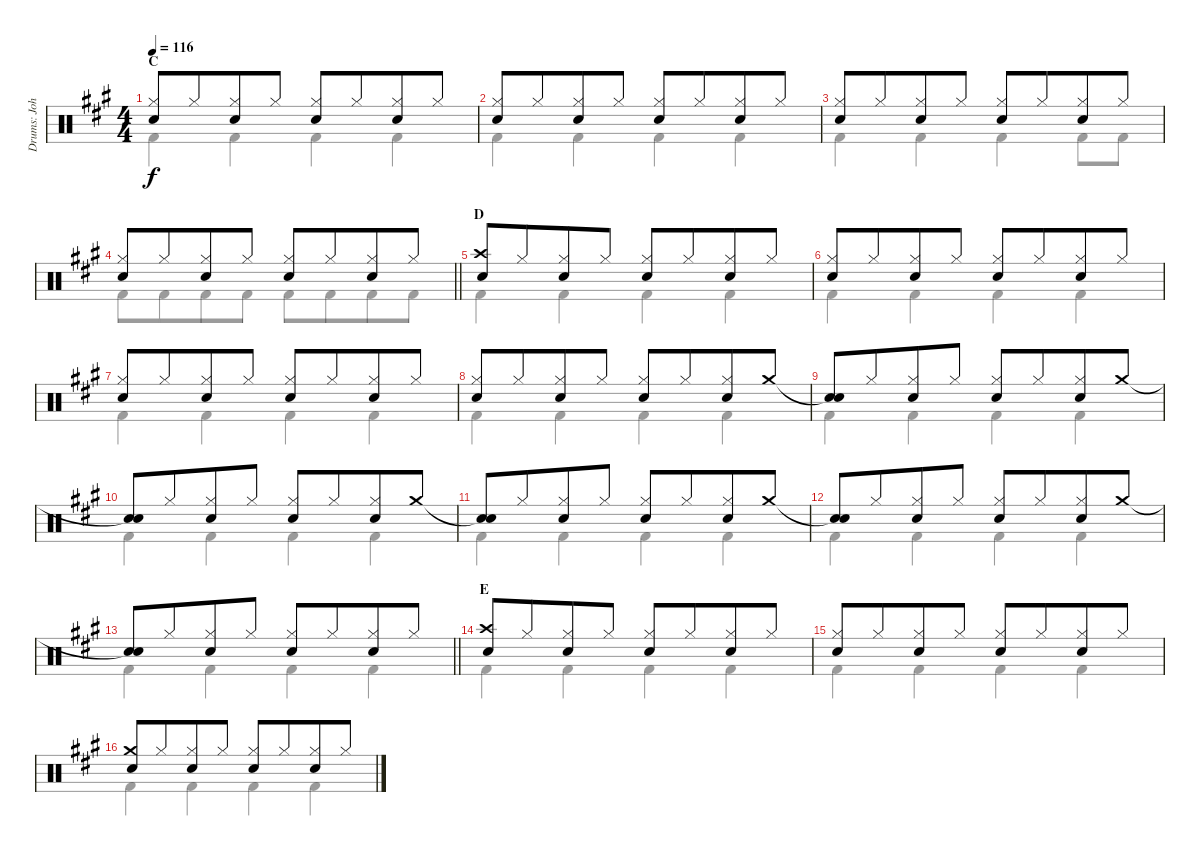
\track ("Drums: John" "Drums: Joh") {instrument percussion}
\staff {score}
\articulation defaults
\voice
\ts (4 4)
\section ("" "C")
\tempo 116
\clef neutral
\ks a
("Hi-Hat (closed)" "Electric Snare (hit)").8{dy f} "Hi-Hat (closed)".8{beam merge} ("Hi-Hat (closed)" "Electric Snare (hit)").8 "Hi-Hat (closed)".8 ("Hi-Hat (closed)" "Electric Snare (hit)").8 "Hi-Hat (closed)".8{beam merge} ("Hi-Hat (closed)" "Electric Snare (hit)").8 "Hi-Hat (closed)".8 |
("Hi-Hat (closed)" "Electric Snare (hit)").8 "Hi-Hat (closed)".8{beam merge} ("Hi-Hat (closed)" "Electric Snare (hit)").8 "Hi-Hat (closed)".8 ("Hi-Hat (closed)" "Electric Snare (hit)").8 "Hi-Hat (closed)".8{beam merge} ("Hi-Hat (closed)" "Electric Snare (hit)").8 "Hi-Hat (closed)".8 |
("Hi-Hat (closed)" "Electric Snare (hit)").8 "Hi-Hat (closed)".8{beam merge} ("Hi-Hat (closed)" "Electric Snare (hit)").8 "Hi-Hat (closed)".8 ("Hi-Hat (closed)" "Electric Snare (hit)").8 "Hi-Hat (closed)".8{beam merge} ("Hi-Hat (closed)" "Electric Snare (hit)").8 "Hi-Hat (closed)".8 |
\barLineRight lightlight
("Hi-Hat (closed)" "Electric Snare (hit)").8 "Hi-Hat (closed)".8{beam merge} ("Hi-Hat (closed)" "Electric Snare (hit)").8 "Hi-Hat (closed)".8 ("Hi-Hat (closed)" "Electric Snare (hit)").8 "Hi-Hat (closed)".8{beam merge} ("Hi-Hat (closed)" "Electric Snare (hit)").8 "Hi-Hat (closed)".8 |
\section ("" "D")
("Crash high (hit)" "Electric Snare (hit)").8 "Hi-Hat (closed)".8{beam merge} ("Hi-Hat (closed)" "Electric Snare (hit)").8 "Hi-Hat (closed)".8 ("Hi-Hat (closed)" "Electric Snare (hit)").8 "Hi-Hat (closed)".8{beam merge} ("Hi-Hat (closed)" "Electric Snare (hit)").8 "Hi-Hat (closed)".8 |
("Hi-Hat (closed)" "Electric Snare (hit)").8 "Hi-Hat (closed)".8{beam merge} ("Hi-Hat (closed)" "Electric Snare (hit)").8 "Hi-Hat (closed)".8 ("Hi-Hat (closed)" "Electric Snare (hit)").8 "Hi-Hat (closed)".8{beam merge} ("Hi-Hat (closed)" "Electric Snare (hit)").8 "Hi-Hat (closed)".8 |
("Hi-Hat (closed)" "Electric Snare (hit)").8 "Hi-Hat (closed)".8{beam merge} ("Hi-Hat (closed)" "Electric Snare (hit)").8 "Hi-Hat (closed)".8 ("Hi-Hat (closed)" "Electric Snare (hit)").8 "Hi-Hat (closed)".8{beam merge} ("Hi-Hat (closed)" "Electric Snare (hit)").8 "Hi-Hat (closed)".8 |
("Hi-Hat (closed)" "Electric Snare (hit)").8 "Hi-Hat (closed)".8{beam merge} ("Hi-Hat (closed)" "Electric Snare (hit)").8 "Hi-Hat (closed)".8 ("Hi-Hat (closed)" "Electric Snare (hit)").8 "Hi-Hat (closed)".8{beam merge} ("Hi-Hat (closed)" "Electric Snare (hit)").8 "Crash medium (hit)".8 |
("Snare (hit)"{t} "Electric Snare (hit)").8 "Hi-Hat (closed)".8{beam merge} ("Hi-Hat (closed)" "Electric Snare (hit)").8 "Hi-Hat (closed)".8 ("Hi-Hat (closed)" "Electric Snare (hit)").8 "Hi-Hat (closed)".8{beam merge} ("Hi-Hat (closed)" "Electric Snare (hit)").8 "Crash medium (hit)".8 |
("Snare (hit)"{t} "Electric Snare (hit)").8 "Hi-Hat (closed)".8{beam merge} ("Hi-Hat (closed)" "Electric Snare (hit)").8 "Hi-Hat (closed)".8 ("Hi-Hat (closed)" "Electric Snare (hit)").8 "Hi-Hat (closed)".8{beam merge} ("Hi-Hat (closed)" "Electric Snare (hit)").8 "Crash medium (hit)".8 |
("Snare (hit)"{t} "Electric Snare (hit)").8 "Hi-Hat (closed)".8{beam merge} ("Hi-Hat (closed)" "Electric Snare (hit)").8 "Hi-Hat (closed)".8 ("Hi-Hat (closed)" "Electric Snare (hit)").8 "Hi-Hat (closed)".8{beam merge} ("Hi-Hat (closed)" "Electric Snare (hit)").8 "Crash medium (hit)".8 |
("Snare (hit)"{t} "Electric Snare (hit)").8 "Hi-Hat (closed)".8{beam merge} ("Hi-Hat (closed)" "Electric Snare (hit)").8 "Hi-Hat (closed)".8 ("Hi-Hat (closed)" "Electric Snare (hit)").8 "Hi-Hat (closed)".8{beam merge} ("Hi-Hat (closed)" "Electric Snare (hit)").8 "Crash medium (hit)".8 |
\barLineRight lightlight
("Snare (hit)"{t} "Electric Snare (hit)").8 "Hi-Hat (closed)".8{beam merge} ("Hi-Hat (closed)" "Electric Snare (hit)").8 "Hi-Hat (closed)".8 ("Hi-Hat (closed)" "Electric Snare (hit)").8 "Hi-Hat (closed)".8{beam merge} ("Hi-Hat (closed)" "Electric Snare (hit)").8 "Hi-Hat (closed)".8 |
\section ("" "E")
("Crash high (hit)" "Electric Snare (hit)").8 "Hi-Hat (closed)".8{beam merge} ("Hi-Hat (closed)" "Electric Snare (hit)").8 "Hi-Hat (closed)".8 ("Hi-Hat (closed)" "Electric Snare (hit)").8 "Hi-Hat (closed)".8{beam merge} ("Hi-Hat (closed)" "Electric Snare (hit)").8 "Hi-Hat (closed)".8 |
("Hi-Hat (closed)" "Electric Snare (hit)").8 "Hi-Hat (closed)".8{beam merge} ("Hi-Hat (closed)" "Electric Snare (hit)").8 "Hi-Hat (closed)".8 ("Hi-Hat (closed)" "Electric Snare (hit)").8 "Hi-Hat (closed)".8{beam merge} ("Hi-Hat (closed)" "Electric Snare (hit)").8 "Hi-Hat (closed)".8 |
("Crash medium (hit)" "Electric Snare (hit)").8 "Hi-Hat (closed)".8{beam merge} ("Hi-Hat (closed)" "Electric Snare (hit)").8 "Hi-Hat (closed)".8 ("Hi-Hat (closed)" "Electric Snare (hit)").8 "Hi-Hat (closed)".8{beam merge} ("Hi-Hat (closed)" "Electric Snare (hit)").8 "Hi-Hat (closed)".8
\voice
\clef neutral
\ottava regular
\simile none
\ks a "Kick (hit) 2".4{dy f} "Kick (hit) 2".4 "Kick (hit) 2".4 "Kick (hit) 2".4
|
"Kick (hit) 2".4 "Kick (hit) 2".4 "Kick (hit) 2".4 "Kick (hit) 2".4 |
"Kick (hit) 2".4 "Kick (hit) 2".4 "Kick (hit) 2".4 "Kick (hit) 2".8 "Kick (hit) 2".8 |
\barLineRight lightlight "Kick (hit) 2".8 "Kick (hit) 2".8{beam merge} "Kick (hit) 2".8 "Kick (hit) 2".8 "Kick (hit) 2".8 "Kick (hit) 2".8{beam merge} "Kick (hit) 2".8 "Kick (hit) 2".8
|
"Kick (hit) 2".4 "Kick (hit) 2".4 "Kick (hit) 2".4 "Kick (hit) 2".4 |
"Kick (hit) 2".4 "Kick (hit) 2".4 "Kick (hit) 2".4 "Kick (hit) 2".4 |
"Kick (hit) 2".4 "Kick (hit) 2".4 "Kick (hit) 2".4 "Kick (hit) 2".4 |
"Kick (hit) 2".4 "Kick (hit) 2".4 "Kick (hit) 2".4 "Kick (hit) 2".4 |
"Kick (hit) 2".4 "Kick (hit) 2".4 "Kick (hit) 2".4 "Kick (hit) 2".4 |
"Kick (hit) 2".4 "Kick (hit) 2".4 "Kick (hit) 2".4 "Kick (hit) 2".4 |
"Kick (hit) 2".4 "Kick (hit) 2".4 "Kick (hit) 2".4 "Kick (hit) 2".4 |
"Kick (hit) 2".4 "Kick (hit) 2".4 "Kick (hit) 2".4 "Kick (hit) 2".4 |
\barLineRight lightlight "Kick (hit) 2".4 "Kick (hit) 2".4 "Kick (hit) 2".4 "Kick (hit) 2".4
|
"Kick (hit) 2".4 "Kick (hit) 2".4 "Kick (hit) 2".4 "Kick (hit) 2".4 |
"Kick (hit) 2".4 "Kick (hit) 2".4 "Kick (hit) 2".4 "Kick (hit) 2".4 |
"Kick (hit) 2".4 "Kick (hit) 2".4 "Kick (hit) 2".4 "Kick (hit) 2".4
